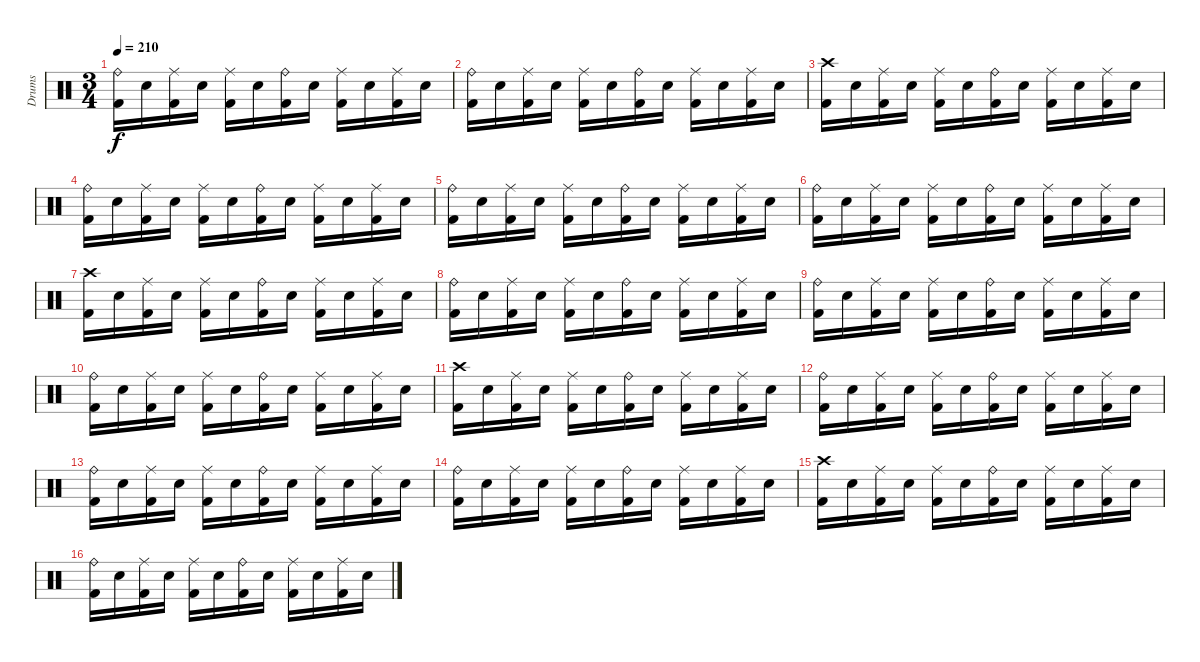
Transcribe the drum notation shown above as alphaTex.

\track ("Drums" "Drums") {instrument percussion}
\staff {score}
\articulation defaults
\ts (3 4)
\tempo 210
\clef neutral
\ks c
("Ride (bell)" "Kick (hit) 2").16{dy f} "Electric Snare (hit)".16 ("Ride (middle)" "Kick (hit) 2").16 "Electric Snare (hit)".16 ("Ride (middle)" "Kick (hit) 2").16 "Electric Snare (hit)".16 ("Ride (bell)" "Kick (hit) 2").16 "Electric Snare (hit)".16 ("Ride (middle)" "Kick (hit) 2").16 "Electric Snare (hit)".16 ("Ride (middle)" "Kick (hit) 2").16 "Electric Snare (hit)".16 |
("Ride (bell)" "Kick (hit) 2").16 "Electric Snare (hit)".16 ("Ride (middle)" "Kick (hit) 2").16 "Electric Snare (hit)".16 ("Ride (middle)" "Kick (hit) 2").16 "Electric Snare (hit)".16 ("Ride (bell)" "Kick (hit) 2").16 "Electric Snare (hit)".16 ("Ride (middle)" "Kick (hit) 2").16 "Electric Snare (hit)".16 ("Ride (middle)" "Kick (hit) 2").16 "Electric Snare (hit)".16 |
("Crash high (hit)" "Kick (hit) 2").16 "Electric Snare (hit)".16 ("Ride (middle)" "Kick (hit) 2").16 "Electric Snare (hit)".16 ("Ride (middle)" "Kick (hit) 2").16 "Electric Snare (hit)".16 ("Ride (bell)" "Kick (hit) 2").16 "Electric Snare (hit)".16 ("Ride (middle)" "Kick (hit) 2").16 "Electric Snare (hit)".16 ("Ride (middle)" "Kick (hit) 2").16 "Electric Snare (hit)".16 |
("Ride (bell)" "Kick (hit) 2").16 "Electric Snare (hit)".16 ("Ride (middle)" "Kick (hit) 2").16 "Electric Snare (hit)".16 ("Ride (middle)" "Kick (hit) 2").16 "Electric Snare (hit)".16 ("Ride (bell)" "Kick (hit) 2").16 "Electric Snare (hit)".16 ("Ride (middle)" "Kick (hit) 2").16 "Electric Snare (hit)".16 ("Ride (middle)" "Kick (hit) 2").16 "Electric Snare (hit)".16 |
("Ride (bell)" "Kick (hit) 2").16 "Electric Snare (hit)".16 ("Ride (middle)" "Kick (hit) 2").16 "Electric Snare (hit)".16 ("Ride (middle)" "Kick (hit) 2").16 "Electric Snare (hit)".16 ("Ride (bell)" "Kick (hit) 2").16 "Electric Snare (hit)".16 ("Ride (middle)" "Kick (hit) 2").16 "Electric Snare (hit)".16 ("Ride (middle)" "Kick (hit) 2").16 "Electric Snare (hit)".16 |
("Ride (bell)" "Kick (hit) 2").16 "Electric Snare (hit)".16 ("Ride (middle)" "Kick (hit) 2").16 "Electric Snare (hit)".16 ("Ride (middle)" "Kick (hit) 2").16 "Electric Snare (hit)".16 ("Ride (bell)" "Kick (hit) 2").16 "Electric Snare (hit)".16 ("Ride (middle)" "Kick (hit) 2").16 "Electric Snare (hit)".16 ("Ride (middle)" "Kick (hit) 2").16 "Electric Snare (hit)".16 |
("Crash high (hit)" "Kick (hit) 2").16 "Electric Snare (hit)".16 ("Ride (middle)" "Kick (hit) 2").16 "Electric Snare (hit)".16 ("Ride (middle)" "Kick (hit) 2").16 "Electric Snare (hit)".16 ("Ride (bell)" "Kick (hit) 2").16 "Electric Snare (hit)".16 ("Ride (middle)" "Kick (hit) 2").16 "Electric Snare (hit)".16 ("Ride (middle)" "Kick (hit) 2").16 "Electric Snare (hit)".16 |
("Ride (bell)" "Kick (hit) 2").16 "Electric Snare (hit)".16 ("Ride (middle)" "Kick (hit) 2").16 "Electric Snare (hit)".16 ("Ride (middle)" "Kick (hit) 2").16 "Electric Snare (hit)".16 ("Ride (bell)" "Kick (hit) 2").16 "Electric Snare (hit)".16 ("Ride (middle)" "Kick (hit) 2").16 "Electric Snare (hit)".16 ("Ride (middle)" "Kick (hit) 2").16 "Electric Snare (hit)".16 |
("Ride (bell)" "Kick (hit) 2").16 "Electric Snare (hit)".16 ("Ride (middle)" "Kick (hit) 2").16 "Electric Snare (hit)".16 ("Ride (middle)" "Kick (hit) 2").16 "Electric Snare (hit)".16 ("Ride (bell)" "Kick (hit) 2").16 "Electric Snare (hit)".16 ("Ride (middle)" "Kick (hit) 2").16 "Electric Snare (hit)".16 ("Ride (middle)" "Kick (hit) 2").16 "Electric Snare (hit)".16 |
("Ride (bell)" "Kick (hit) 2").16 "Electric Snare (hit)".16 ("Ride (middle)" "Kick (hit) 2").16 "Electric Snare (hit)".16 ("Ride (middle)" "Kick (hit) 2").16 "Electric Snare (hit)".16 ("Ride (bell)" "Kick (hit) 2").16 "Electric Snare (hit)".16 ("Ride (middle)" "Kick (hit) 2").16 "Electric Snare (hit)".16 ("Ride (middle)" "Kick (hit) 2").16 "Electric Snare (hit)".16 |
("Crash high (hit)" "Kick (hit) 2").16 "Electric Snare (hit)".16 ("Ride (middle)" "Kick (hit) 2").16 "Electric Snare (hit)".16 ("Ride (middle)" "Kick (hit) 2").16 "Electric Snare (hit)".16 ("Ride (bell)" "Kick (hit) 2").16 "Electric Snare (hit)".16 ("Ride (middle)" "Kick (hit) 2").16 "Electric Snare (hit)".16 ("Ride (middle)" "Kick (hit) 2").16 "Electric Snare (hit)".16 |
("Ride (bell)" "Kick (hit) 2").16 "Electric Snare (hit)".16 ("Ride (middle)" "Kick (hit) 2").16 "Electric Snare (hit)".16 ("Ride (middle)" "Kick (hit) 2").16 "Electric Snare (hit)".16 ("Ride (bell)" "Kick (hit) 2").16 "Electric Snare (hit)".16 ("Ride (middle)" "Kick (hit) 2").16 "Electric Snare (hit)".16 ("Ride (middle)" "Kick (hit) 2").16 "Electric Snare (hit)".16 |
("Ride (bell)" "Kick (hit) 2").16 "Electric Snare (hit)".16 ("Ride (middle)" "Kick (hit) 2").16 "Electric Snare (hit)".16 ("Ride (middle)" "Kick (hit) 2").16 "Electric Snare (hit)".16 ("Ride (bell)" "Kick (hit) 2").16 "Electric Snare (hit)".16 ("Ride (middle)" "Kick (hit) 2").16 "Electric Snare (hit)".16 ("Ride (middle)" "Kick (hit) 2").16 "Electric Snare (hit)".16 |
("Ride (bell)" "Kick (hit) 2").16 "Electric Snare (hit)".16 ("Ride (middle)" "Kick (hit) 2").16 "Electric Snare (hit)".16 ("Ride (middle)" "Kick (hit) 2").16 "Electric Snare (hit)".16 ("Ride (bell)" "Kick (hit) 2").16 "Electric Snare (hit)".16 ("Ride (middle)" "Kick (hit) 2").16 "Electric Snare (hit)".16 ("Ride (middle)" "Kick (hit) 2").16 "Electric Snare (hit)".16 |
("Crash high (hit)" "Kick (hit) 2").16 "Electric Snare (hit)".16 ("Ride (middle)" "Kick (hit) 2").16 "Electric Snare (hit)".16 ("Ride (middle)" "Kick (hit) 2").16 "Electric Snare (hit)".16 ("Ride (bell)" "Kick (hit) 2").16 "Electric Snare (hit)".16 ("Ride (middle)" "Kick (hit) 2").16 "Electric Snare (hit)".16 ("Ride (middle)" "Kick (hit) 2").16 "Electric Snare (hit)".16 |
("Ride (bell)" "Kick (hit) 2").16 "Electric Snare (hit)".16 ("Ride (middle)" "Kick (hit) 2").16 "Electric Snare (hit)".16 ("Ride (middle)" "Kick (hit) 2").16 "Electric Snare (hit)".16 ("Ride (bell)" "Kick (hit) 2").16 "Electric Snare (hit)".16 ("Ride (middle)" "Kick (hit) 2").16 "Electric Snare (hit)".16 ("Ride (middle)" "Kick (hit) 2").16 "Electric Snare (hit)".16
